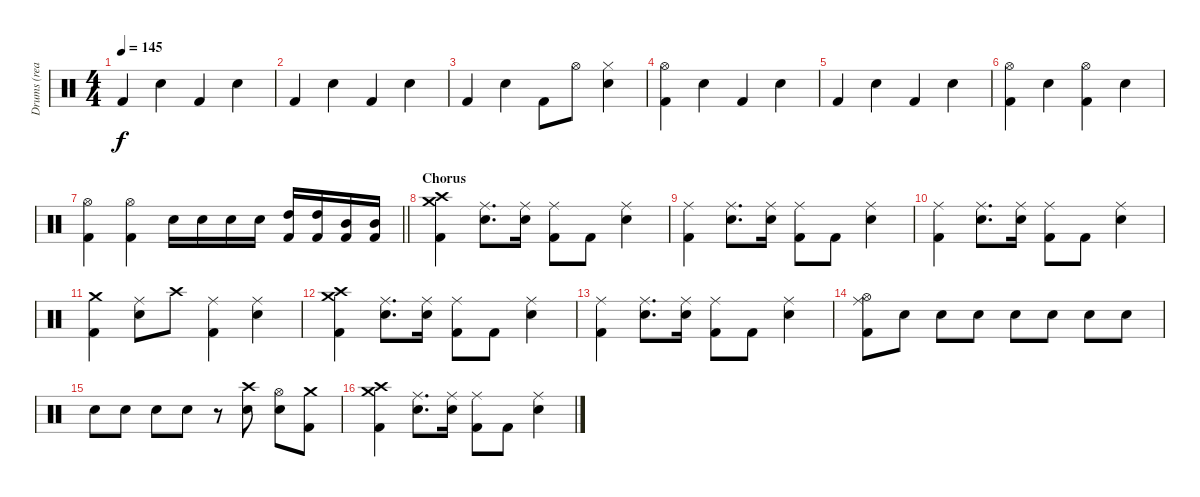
\track ("Drums (real)" "Drums (rea") {instrument percussion}
\staff {score}
\articulation defaults
\ts (4 4)
\tempo 145
\clef neutral
\ks c "Kick (hit) 2".4{dy f} "Snare (hit) 2".4 "Kick (hit) 2".4 "Snare (hit) 2".4
|
"Kick (hit) 2".4 "Snare (hit) 2".4 "Kick (hit) 2".4 "Snare (hit) 2".4 |
"Kick (hit) 2".4 "Snare (hit) 2".4 "Kick (hit) 2".8 "Hi-Hat (open)".8 ("Hi-Hat (closed)" "Snare (hit) 2").4 |
("Hi-Hat (open)" "Kick (hit) 2").4 "Snare (hit) 2".4 "Kick (hit) 2".4 "Snare (hit) 2".4 |
"Kick (hit) 2".4 "Snare (hit) 2".4 "Kick (hit) 2".4 "Snare (hit) 2".4 |
("Hi-Hat (open)" "Kick (hit) 2").4 "Snare (hit) 2".4 ("Hi-Hat (open)" "Kick (hit) 2").4 "Snare (hit) 2".4 |
\barLineRight lightlight
("Hi-Hat (open)" "Kick (hit) 2").4 ("Hi-Hat (open)" "Kick (hit) 2").4 "Snare (hit) 2".16 "Snare (hit) 2".16 "Snare (hit) 2".16 "Snare (hit) 2".16 ("High Tom (hit)" "Kick (hit) 2").16 ("High Tom (hit)" "Kick (hit) 2").16 ("Mid Tom (hit)" "Kick (hit) 2").16 ("Mid Tom (hit)" "Kick (hit) 2").16 |
\section ("" "Chorus")
("Crash high (hit)" "Crash medium (hit)" "Kick (hit) 2").4 ("Ride (middle)" "Snare (hit) 2").8{d} ("Ride (middle)" "Snare (hit) 2").16 ("Ride (middle)" "Kick (hit) 2").8 "Kick (hit) 2".8 ("Ride (middle)" "Snare (hit) 2").4 |
("Ride (middle)" "Kick (hit) 2").4 ("Ride (middle)" "Snare (hit) 2").8{d} ("Ride (middle)" "Snare (hit) 2").16 ("Ride (middle)" "Kick (hit) 2").8 "Kick (hit) 2".8 ("Ride (middle)" "Snare (hit) 2").4 |
("Ride (middle)" "Kick (hit) 2").4 ("Ride (middle)" "Snare (hit) 2").8{d} ("Ride (middle)" "Snare (hit) 2").16 ("Ride (middle)" "Kick (hit) 2").8 "Kick (hit) 2".8 ("Ride (middle)" "Snare (hit) 2").4 |
("Crash medium (hit)" "Kick (hit) 2").4 ("Ride (middle)" "Snare (hit) 2").8 "Crash high (hit)".8 ("Ride (middle)" "Kick (hit) 2").4 ("Ride (middle)" "Snare (hit) 2").4 |
("Crash high (hit)" "Crash medium (hit)" "Kick (hit) 2").4 ("Ride (middle)" "Snare (hit) 2").8{d} ("Ride (middle)" "Snare (hit) 2").16 ("Ride (middle)" "Kick (hit) 2").8 "Kick (hit) 2".8 ("Ride (middle)" "Snare (hit) 2").4 |
("Ride (middle)" "Kick (hit) 2").4 ("Ride (middle)" "Snare (hit) 2").8{d} ("Ride (middle)" "Snare (hit) 2").16 ("Ride (middle)" "Kick (hit) 2").8 "Kick (hit) 2".8 ("Ride (middle)" "Snare (hit) 2").4 |
("Hi-Hat (open)" "Ride (middle)" "Kick (hit) 2").8 "Snare (hit) 2".8{volume 4} "Snare (hit) 2".8{volume 13} "Snare (hit) 2".8 "Snare (hit) 2".8 "Snare (hit) 2".8 "Snare (hit) 2".8 "Snare (hit) 2".8 |
"Snare (hit) 2".8 "Snare (hit) 2".8 "Snare (hit) 2".8 "Snare (hit) 2".8 r.8 ("Crash high (hit)" "Snare (hit) 2").8 ("Hi-Hat (open)" "Snare (hit) 2").8 ("Crash medium (hit)" "Kick (hit) 2").8 |
("Crash high (hit)" "Crash medium (hit)" "Kick (hit) 2").4 ("Ride (middle)" "Snare (hit) 2").8{d} ("Ride (middle)" "Snare (hit) 2").16 ("Ride (middle)" "Kick (hit) 2").8 "Kick (hit) 2".8 ("Ride (middle)" "Snare (hit) 2").4
